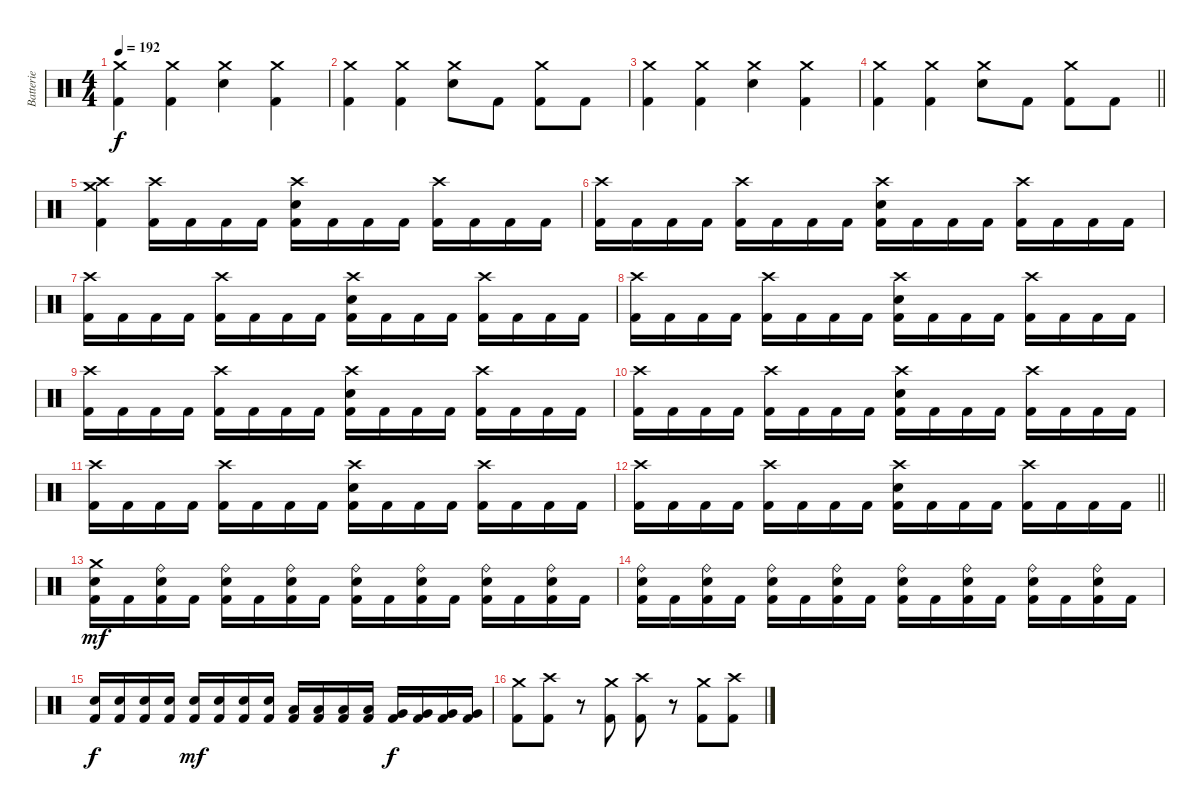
\track ("Batterie" "Batterie") {instrument percussion}
\staff {score}
\articulation defaults
\ts (4 4)
\tempo 192
\clef neutral
\ks c
("Crash medium (hit)" "Kick (hit) 2").4{dy f} ("Crash medium (hit)" "Kick (hit) 2").4 ("Crash medium (hit)" "Snare (hit) 2").4 ("Crash medium (hit)" "Kick (hit) 2").4 |
("Crash medium (hit)" "Kick (hit) 2").4 ("Crash medium (hit)" "Kick (hit) 2").4 ("Crash medium (hit)" "Snare (hit) 2").8 "Kick (hit) 2".8 ("Crash medium (hit)" "Kick (hit) 2").8 "Kick (hit) 2".8 |
("Crash medium (hit)" "Kick (hit) 2").4 ("Crash medium (hit)" "Kick (hit) 2").4 ("Crash medium (hit)" "Snare (hit) 2").4 ("Crash medium (hit)" "Kick (hit) 2").4 |
\barLineRight lightlight
("Crash medium (hit)" "Kick (hit) 2").4 ("Crash medium (hit)" "Kick (hit) 2").4 ("Crash medium (hit)" "Snare (hit) 2").8 "Kick (hit) 2".8 ("Crash medium (hit)" "Kick (hit) 2").8 "Kick (hit) 2".8 |
\section ("" "")
("Crash medium (hit)" "Crash high (hit)" "Kick (hit) 2").4 ("Crash high (hit)" "Kick (hit) 2").16 "Kick (hit) 2".16 "Kick (hit) 2".16 "Kick (hit) 2".16 ("Crash high (hit)" "Snare (hit) 2" "Kick (hit) 2").16 "Kick (hit) 2".16 "Kick (hit) 2".16 "Kick (hit) 2".16 ("Crash high (hit)" "Kick (hit) 2").16 "Kick (hit) 2".16 "Kick (hit) 2".16 "Kick (hit) 2".16 |
("Crash high (hit)" "Kick (hit) 2").16 "Kick (hit) 2".16 "Kick (hit) 2".16 "Kick (hit) 2".16 ("Crash high (hit)" "Kick (hit) 2").16 "Kick (hit) 2".16 "Kick (hit) 2".16 "Kick (hit) 2".16 ("Crash high (hit)" "Snare (hit) 2" "Kick (hit) 2").16 "Kick (hit) 2".16 "Kick (hit) 2".16 "Kick (hit) 2".16 ("Crash high (hit)" "Kick (hit) 2").16 "Kick (hit) 2".16 "Kick (hit) 2".16 "Kick (hit) 2".16 |
("Crash high (hit)" "Kick (hit) 2").16 "Kick (hit) 2".16 "Kick (hit) 2".16 "Kick (hit) 2".16 ("Crash high (hit)" "Kick (hit) 2").16 "Kick (hit) 2".16 "Kick (hit) 2".16 "Kick (hit) 2".16 ("Crash high (hit)" "Snare (hit) 2" "Kick (hit) 2").16 "Kick (hit) 2".16 "Kick (hit) 2".16 "Kick (hit) 2".16 ("Crash high (hit)" "Kick (hit) 2").16 "Kick (hit) 2".16 "Kick (hit) 2".16 "Kick (hit) 2".16 |
("Crash high (hit)" "Kick (hit) 2").16 "Kick (hit) 2".16 "Kick (hit) 2".16 "Kick (hit) 2".16 ("Crash high (hit)" "Kick (hit) 2").16 "Kick (hit) 2".16 "Kick (hit) 2".16 "Kick (hit) 2".16 ("Crash high (hit)" "Snare (hit) 2" "Kick (hit) 2").16 "Kick (hit) 2".16 "Kick (hit) 2".16 "Kick (hit) 2".16 ("Crash high (hit)" "Kick (hit) 2").16 "Kick (hit) 2".16 "Kick (hit) 2".16 "Kick (hit) 2".16 |
("Crash high (hit)" "Kick (hit) 2").16 "Kick (hit) 2".16 "Kick (hit) 2".16 "Kick (hit) 2".16 ("Crash high (hit)" "Kick (hit) 2").16 "Kick (hit) 2".16 "Kick (hit) 2".16 "Kick (hit) 2".16 ("Crash high (hit)" "Snare (hit) 2" "Kick (hit) 2").16 "Kick (hit) 2".16 "Kick (hit) 2".16 "Kick (hit) 2".16 ("Crash high (hit)" "Kick (hit) 2").16 "Kick (hit) 2".16 "Kick (hit) 2".16 "Kick (hit) 2".16 |
("Crash high (hit)" "Kick (hit) 2").16 "Kick (hit) 2".16 "Kick (hit) 2".16 "Kick (hit) 2".16 ("Crash high (hit)" "Kick (hit) 2").16 "Kick (hit) 2".16 "Kick (hit) 2".16 "Kick (hit) 2".16 ("Crash high (hit)" "Snare (hit) 2" "Kick (hit) 2").16 "Kick (hit) 2".16 "Kick (hit) 2".16 "Kick (hit) 2".16 ("Crash high (hit)" "Kick (hit) 2").16 "Kick (hit) 2".16 "Kick (hit) 2".16 "Kick (hit) 2".16 |
("Crash high (hit)" "Kick (hit) 2").16 "Kick (hit) 2".16 "Kick (hit) 2".16 "Kick (hit) 2".16 ("Crash high (hit)" "Kick (hit) 2").16 "Kick (hit) 2".16 "Kick (hit) 2".16 "Kick (hit) 2".16 ("Crash high (hit)" "Snare (hit) 2" "Kick (hit) 2").16 "Kick (hit) 2".16 "Kick (hit) 2".16 "Kick (hit) 2".16 ("Crash high (hit)" "Kick (hit) 2").16 "Kick (hit) 2".16 "Kick (hit) 2".16 "Kick (hit) 2".16 |
\barLineRight lightlight
("Crash high (hit)" "Kick (hit) 2").16 "Kick (hit) 2".16 "Kick (hit) 2".16 "Kick (hit) 2".16 ("Crash high (hit)" "Kick (hit) 2").16 "Kick (hit) 2".16 "Kick (hit) 2".16 "Kick (hit) 2".16 ("Crash high (hit)" "Snare (hit) 2" "Kick (hit) 2").16 "Kick (hit) 2".16 "Kick (hit) 2".16 "Kick (hit) 2".16 ("Crash high (hit)" "Kick (hit) 2").16 "Kick (hit) 2".16 "Kick (hit) 2".16 "Kick (hit) 2".16 |
\section ("" "")
("Crash medium (hit)" "Snare (hit) 2" "Kick (hit) 2").16{dy mf} "Kick (hit) 2".16 ("Ride (bell)" "Snare (hit) 2" "Kick (hit) 2").16 "Kick (hit) 2".16 ("Ride (bell)" "Snare (hit) 2" "Kick (hit) 2").16 "Kick (hit) 2".16 ("Ride (bell)" "Snare (hit) 2" "Kick (hit) 2").16 "Kick (hit) 2".16 ("Ride (bell)" "Snare (hit) 2" "Kick (hit) 2").16 "Kick (hit) 2".16 ("Ride (bell)" "Snare (hit) 2" "Kick (hit) 2").16 "Kick (hit) 2".16 ("Ride (bell)" "Snare (hit) 2" "Kick (hit) 2").16 "Kick (hit) 2".16 ("Ride (bell)" "Snare (hit) 2" "Kick (hit) 2").16 "Kick (hit) 2".16 |
("Ride (bell)" "Snare (hit) 2" "Kick (hit) 2").16 "Kick (hit) 2".16 ("Ride (bell)" "Snare (hit) 2" "Kick (hit) 2").16 "Kick (hit) 2".16 ("Ride (bell)" "Snare (hit) 2" "Kick (hit) 2").16 "Kick (hit) 2".16 ("Ride (bell)" "Snare (hit) 2" "Kick (hit) 2").16 "Kick (hit) 2".16 ("Ride (bell)" "Snare (hit) 2" "Kick (hit) 2").16 "Kick (hit) 2".16 ("Ride (bell)" "Snare (hit) 2" "Kick (hit) 2").16 "Kick (hit) 2".16 ("Ride (bell)" "Snare (hit) 2" "Kick (hit) 2").16 "Kick (hit) 2".16 ("Ride (bell)" "Snare (hit) 2" "Kick (hit) 2").16 "Kick (hit) 2".16 |
("Snare (hit) 2" "Kick (hit) 2").16{dy f} ("Snare (hit) 2" "Kick (hit) 2").16 ("Snare (hit) 2" "Kick (hit) 2").16 ("Snare (hit) 2" "Kick (hit) 2").16 ("Snare (hit) 2" "Kick (hit) 2").16{dy mf} ("Snare (hit) 2" "Kick (hit) 2").16 ("Snare (hit) 2" "Kick (hit) 2").16 ("Snare (hit) 2" "Kick (hit) 2").16 ("Low Tom (hit)" "Kick (hit) 2").16 ("Low Tom (hit)" "Kick (hit) 2").16 ("Low Tom (hit)" "Kick (hit) 2").16 ("Low Tom (hit)" "Kick (hit) 2").16 ("Very Low Tom (hit)" "Kick (hit) 2").16{dy f} ("Very Low Tom (hit)" "Kick (hit) 2").16 ("Very Low Tom (hit)" "Kick (hit) 2").16 ("Very Low Tom (hit)" "Kick (hit) 2").16 |
("Crash medium (hit)" "Kick (hit) 2").8 ("Crash high (hit)" "Kick (hit) 2").8 r.8 ("Crash medium (hit)" "Kick (hit) 2").8 ("Crash high (hit)" "Kick (hit) 2").8 r.8 ("Crash medium (hit)" "Kick (hit) 2").8 ("Crash high (hit)" "Kick (hit) 2").8
